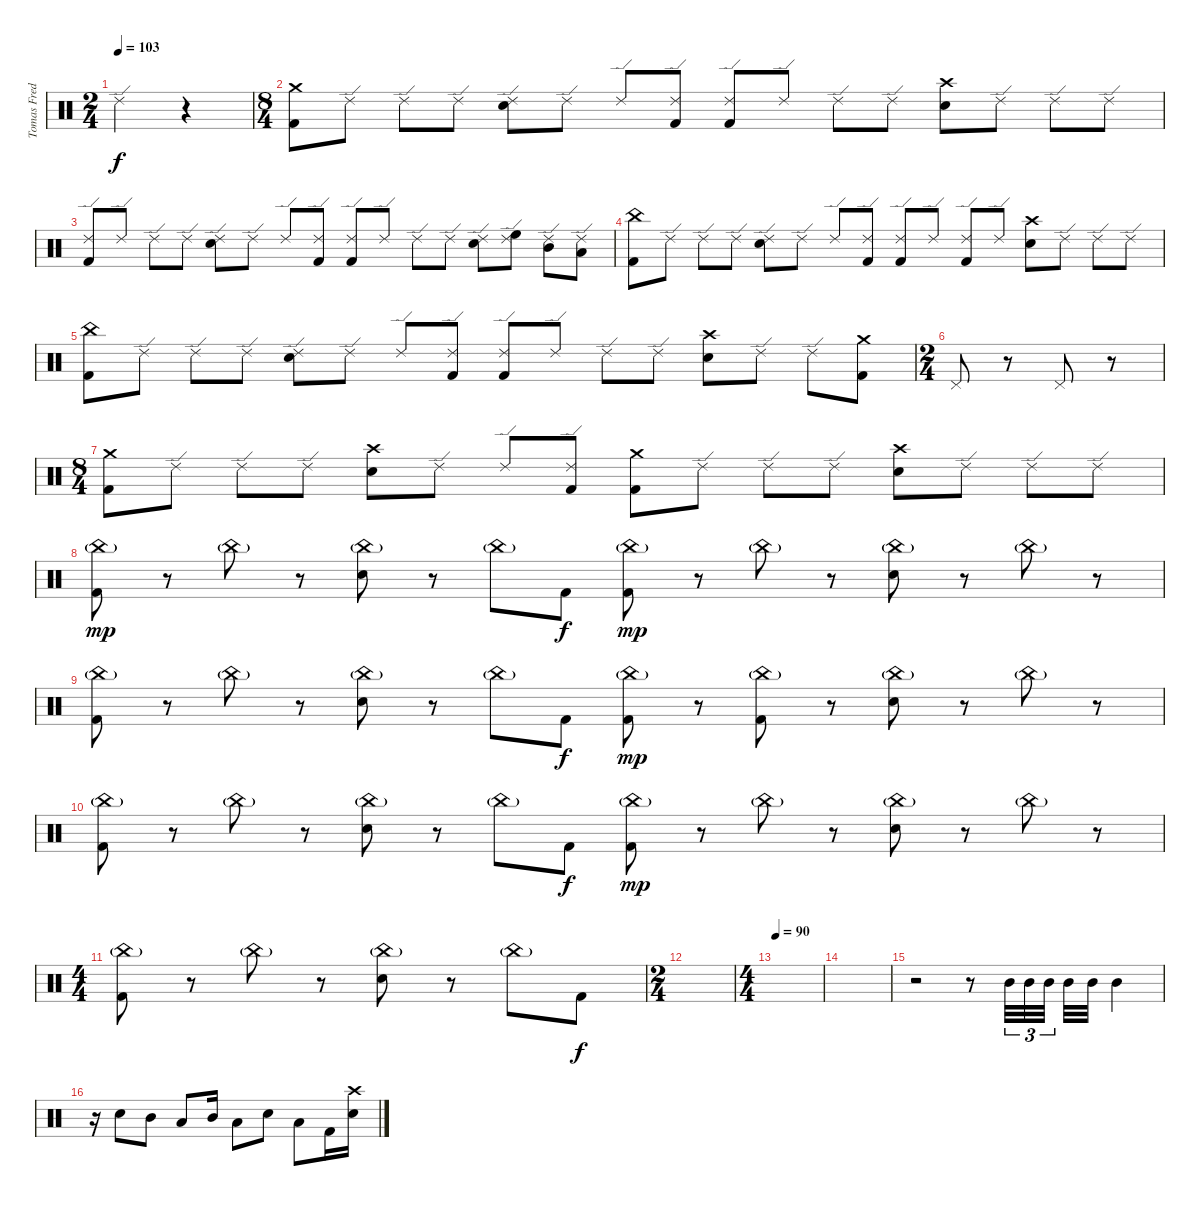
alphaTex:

\track ("Tomas Fredén - drums  " "Tomas Fred") {instrument percussion}
\staff {score}
\articulation defaults
\ts (2 4)
\tempo 103
\clef neutral
\ks c "Ride (edge) 2".4{dy f volume 0}
r.4{volume 11} |
\ts (8 4)
("Crash medium (hit)" "Kick (hit) 2").8 "Ride (edge) 2".8 "Ride (edge) 2".8 "Ride (edge) 2".8 ("Ride (edge) 2" "Snare (hit) 2").8 "Ride (edge) 2".8 "Ride (edge) 2".8 ("Ride (edge) 2" "Kick (hit) 2").8 ("Ride (edge) 2" "Kick (hit) 2").8 "Ride (edge) 2".8 "Ride (edge) 2".8 "Ride (edge) 2".8 ("Crash high (hit)" "Snare (hit) 2").8 "Ride (edge) 2".8 "Ride (edge) 2".8 "Ride (edge) 2".8 |
("Ride (edge) 2" "Kick (hit) 2").8 "Ride (edge) 2".8 "Ride (edge) 2".8 "Ride (edge) 2".8 ("Ride (edge) 2" "Snare (hit) 2").8 "Ride (edge) 2".8 "Ride (edge) 2".8 ("Ride (edge) 2" "Kick (hit) 2").8 ("Ride (edge) 2" "Kick (hit) 2").8 "Ride (edge) 2".8 "Ride (edge) 2".8 "Ride (edge) 2".8 ("Ride (edge) 2" "Snare (hit) 2").8 ("Ride (edge) 2" "High Floor Tom (hit)").8 ("Ride (edge) 2" "Mid Tom (hit)").8 ("Ride (edge) 2" "Low Tom (hit)").8 |
("China (hit)" "Kick (hit) 2").8 "Ride (edge) 2".8 "Ride (edge) 2".8 "Ride (edge) 2".8 ("Ride (edge) 2" "Snare (hit) 2").8 "Ride (edge) 2".8 "Ride (edge) 2".8 ("Ride (edge) 2" "Kick (hit) 2").8 ("Ride (edge) 2" "Kick (hit) 2").8 "Ride (edge) 2".8 ("Ride (edge) 2" "Kick (hit) 2").8 "Ride (edge) 2".8 ("Crash high (hit)" "Snare (hit) 2").8 "Ride (edge) 2".8 "Ride (edge) 2".8 "Ride (edge) 2".8 |
("China (hit)" "Kick (hit) 2").8 "Ride (edge) 2".8 "Ride (edge) 2".8 "Ride (edge) 2".8 ("Ride (edge) 2" "Snare (hit) 2").8 "Ride (edge) 2".8 "Ride (edge) 2".8 ("Ride (edge) 2" "Kick (hit) 2").8 ("Ride (edge) 2" "Kick (hit) 2").8 "Ride (edge) 2".8 "Ride (edge) 2".8 "Ride (edge) 2".8 ("Crash high (hit)" "Snare (hit) 2").8 "Ride (edge) 2".8 "Ride (edge) 2".8 ("Crash medium (hit)" "Kick (hit) 2").8 |
\ts (2 4)
"Pedal Hi-Hat (hit)".8 r.8 "Pedal Hi-Hat (hit)".8 r.8 |
\ts (8 4)
("Crash medium (hit)" "Kick (hit) 2").8 "Ride (edge) 2".8 "Ride (edge) 2".8 "Ride (edge) 2".8 ("Crash high (hit)" "Snare (hit) 2").8 "Ride (edge) 2".8 "Ride (edge) 2".8 ("Ride (edge) 2" "Kick (hit) 2").8 ("Crash medium (hit)" "Kick (hit) 2").8 "Ride (edge) 2".8 "Ride (edge) 2".8 "Ride (edge) 2".8 ("Crash high (hit)" "Snare (hit) 2").8 "Ride (edge) 2".8 "Ride (edge) 2".8 "Ride (edge) 2".8 |
("China (hit)"{g} "Kick (hit) 2").8{dy mp} r.8 "China (hit)"{g}.8 r.8 ("China (hit)"{g} "Snare (hit) 2").8 r.8 "China (hit)"{g}.8 "Kick (hit) 2".8{dy f} ("China (hit)"{g} "Kick (hit) 2").8{dy mp} r.8 "China (hit)"{g}.8 r.8 ("China (hit)"{g} "Snare (hit) 2").8 r.8 "China (hit)"{g}.8 r.8 |
("China (hit)"{g} "Kick (hit) 2").8 r.8 "China (hit)"{g}.8 r.8 ("China (hit)"{g} "Snare (hit) 2").8 r.8 "China (hit)"{g}.8 "Kick (hit) 2".8{dy f} ("China (hit)"{g} "Kick (hit) 2").8{dy mp} r.8 ("China (hit)"{g} "Kick (hit) 2").8 r.8 ("China (hit)"{g} "Snare (hit) 2").8 r.8 "China (hit)"{g}.8 r.8 |
("China (hit)"{g} "Kick (hit) 2").8 r.8 "China (hit)"{g}.8 r.8 ("China (hit)"{g} "Snare (hit) 2").8 r.8 "China (hit)"{g}.8 "Kick (hit) 2".8{dy f} ("China (hit)"{g} "Kick (hit) 2").8{dy mp} r.8 "China (hit)"{g}.8 r.8 ("China (hit)"{g} "Snare (hit) 2").8 r.8 "China (hit)"{g}.8 r.8 |
\ts (4 4)
("China (hit)"{g} "Kick (hit) 2").8 r.8 "China (hit)"{g}.8 r.8 ("China (hit)"{g} "Snare (hit) 2").8 r.8 "China (hit)"{g}.8 "Kick (hit) 2".8{dy f} |
\ts (2 4)
|
\ts (4 4)
\tempo 90
|
|
r.2 r.8 "Mid Tom (hit)".32{tu (3 2)} "Mid Tom (hit)".32{tu (3 2)} "Mid Tom (hit)".32{tu (3 2)} "Mid Tom (hit)".32 "Mid Tom (hit)".32 "Mid Tom (hit)".4 |
r.16 "Electric Snare (hit)".8 "Mid Tom (hit)".8 "Low Tom (hit)".8 "Mid Tom (hit)".16 "Low Tom (hit)".8 "Electric Snare (hit)".8 "Low Tom (hit)".8 "Kick (hit) 2".16 ("Electric Snare (hit)" "Crash high (hit)").16
